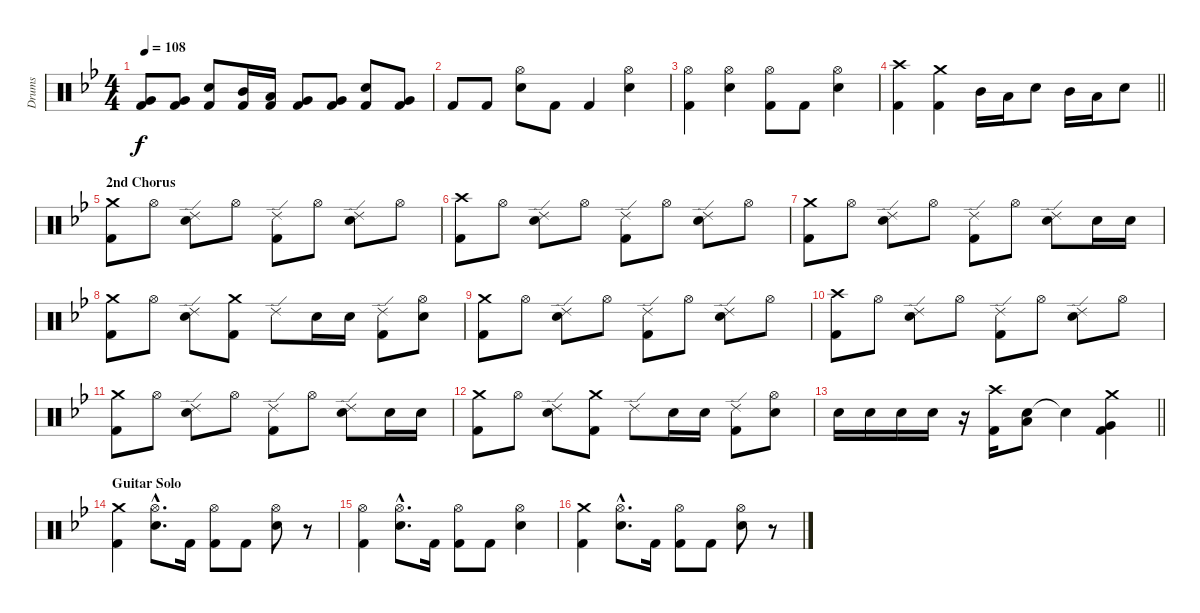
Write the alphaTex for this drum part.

\track ("Drums" "Drums") {instrument percussion}
\staff {score}
\articulation defaults
\ts (4 4)
\tempo 108
\clef neutral
\ks gminor
("Very Low Tom (hit)" "Kick (hit) 2").8{dy f} ("Very Low Tom (hit)" "Kick (hit) 2").8 ("Snare (hit) 2" "Kick (hit) 2").8 ("Mid Tom (hit)" "Kick (hit) 2").16 ("Low Tom (hit)" "Kick (hit) 2").16 ("Very Low Tom (hit)" "Kick (hit) 2").8 ("Very Low Tom (hit)" "Kick (hit) 2").8 ("Snare (hit) 2" "Kick (hit) 2").8 ("Very Low Tom (hit)" "Kick (hit) 2").8 |
"Kick (hit) 2".8 "Kick (hit) 2".8 ("Hi-Hat (open)" "Snare (hit) 2").8 "Kick (hit) 2".8 "Kick (hit) 2".4 ("Hi-Hat (open)" "Snare (hit) 2").4 |
("Hi-Hat (open)" "Kick (hit) 2").4 ("Hi-Hat (open)" "Snare (hit) 2").4 ("Hi-Hat (open)" "Kick (hit) 2").8 "Kick (hit) 2".8 ("Hi-Hat (open)" "Snare (hit) 2").4 |
\barLineRight lightlight
("Crash high (hit)" "Kick (hit) 2").4 ("Crash medium (hit)" "Kick (hit) 2").4 "Mid Tom (hit)".16 "Low Tom (hit)".16 "Snare (hit) 2".8 "Mid Tom (hit)".16 "Low Tom (hit)".16 "Snare (hit) 2".8 |
\section ("" "2nd Chorus")
("Crash medium (hit)" "Kick (hit) 2").8 "Hi-Hat (open)".8 ("Ride (edge) 2" "Snare (hit) 2").8 "Hi-Hat (open)".8 ("Ride (edge) 2" "Kick (hit) 2").8 "Hi-Hat (open)".8 ("Ride (edge) 2" "Snare (hit) 2").8 "Hi-Hat (open)".8 |
("Crash high (hit)" "Kick (hit) 2").8 "Hi-Hat (open)".8 ("Ride (edge) 2" "Snare (hit) 2").8 "Hi-Hat (open)".8 ("Ride (edge) 2" "Kick (hit) 2").8 "Hi-Hat (open)".8 ("Ride (edge) 2" "Snare (hit) 2").8 "Hi-Hat (open)".8 |
("Crash medium (hit)" "Kick (hit) 2").8 "Hi-Hat (open)".8 ("Ride (edge) 2" "Snare (hit) 2").8 "Hi-Hat (open)".8 ("Ride (edge) 2" "Kick (hit) 2").8 "Hi-Hat (open)".8 ("Ride (edge) 2" "Snare (hit) 2").8 "Snare (hit) 2".16 "Snare (hit) 2".16 |
("Crash medium (hit)" "Kick (hit) 2").8 "Hi-Hat (open)".8 ("Ride (edge) 2" "Snare (hit) 2").8 ("Crash medium (hit)" "Kick (hit) 2").8 "Ride (edge) 2".8 "Snare (hit) 2".16 "Snare (hit) 2".16 ("Ride (edge) 2" "Kick (hit) 2").8 ("Hi-Hat (open)" "Snare (hit) 2").8 |
("Crash medium (hit)" "Kick (hit) 2").8 "Hi-Hat (open)".8 ("Ride (edge) 2" "Snare (hit) 2").8 "Hi-Hat (open)".8 ("Ride (edge) 2" "Kick (hit) 2").8 "Hi-Hat (open)".8 ("Ride (edge) 2" "Snare (hit) 2").8 "Hi-Hat (open)".8 |
("Crash high (hit)" "Kick (hit) 2").8 "Hi-Hat (open)".8 ("Ride (edge) 2" "Snare (hit) 2").8 "Hi-Hat (open)".8 ("Ride (edge) 2" "Kick (hit) 2").8 "Hi-Hat (open)".8 ("Ride (edge) 2" "Snare (hit) 2").8 "Hi-Hat (open)".8 |
("Crash medium (hit)" "Kick (hit) 2").8 "Hi-Hat (open)".8 ("Ride (edge) 2" "Snare (hit) 2").8 "Hi-Hat (open)".8 ("Ride (edge) 2" "Kick (hit) 2").8 "Hi-Hat (open)".8 ("Ride (edge) 2" "Snare (hit) 2").8 "Snare (hit) 2".16 "Snare (hit) 2".16 |
("Crash medium (hit)" "Kick (hit) 2").8 "Hi-Hat (open)".8 ("Ride (edge) 2" "Snare (hit) 2").8 ("Crash medium (hit)" "Kick (hit) 2").8 "Ride (edge) 2".8 "Snare (hit) 2".16 "Snare (hit) 2".16 ("Ride (edge) 2" "Kick (hit) 2").8 ("Hi-Hat (open)" "Snare (hit) 2").8 |
\barLineRight lightlight "Snare (hit) 2".16 "Snare (hit) 2".16 "Snare (hit) 2".16 "Snare (hit) 2".16
r.16 ("Crash high (hit)" "Kick (hit) 2").16 ("Snare (hit) 2" "Low Floor Tom (hit)").8 "Snare (hit)"{t}.4 ("Crash medium (hit)" "Very Low Tom (hit)" "Kick (hit) 2").4 |
\section ("" "Guitar Solo")
("Crash medium (hit)" "Kick (hit) 2").4 ("Hi-Hat (open)"{hac} "Snare (hit) 2"{hac}).8{d} "Kick (hit) 2".16 ("Hi-Hat (open)" "Kick (hit) 2").8 "Kick (hit) 2".8 ("Hi-Hat (open)" "Snare (hit) 2").8 r.8 |
("Hi-Hat (open)" "Kick (hit) 2").4 ("Hi-Hat (open)"{hac} "Snare (hit) 2"{hac}).8{d} "Kick (hit) 2".16 ("Hi-Hat (open)" "Kick (hit) 2").8 "Kick (hit) 2".8 ("Hi-Hat (open)" "Snare (hit) 2").4 |
("Crash medium (hit)" "Kick (hit) 2").4 ("Hi-Hat (open)"{hac} "Snare (hit) 2"{hac}).8{d} "Kick (hit) 2".16 ("Hi-Hat (open)" "Kick (hit) 2").8 "Kick (hit) 2".8 ("Hi-Hat (open)" "Snare (hit) 2").8 r.8
